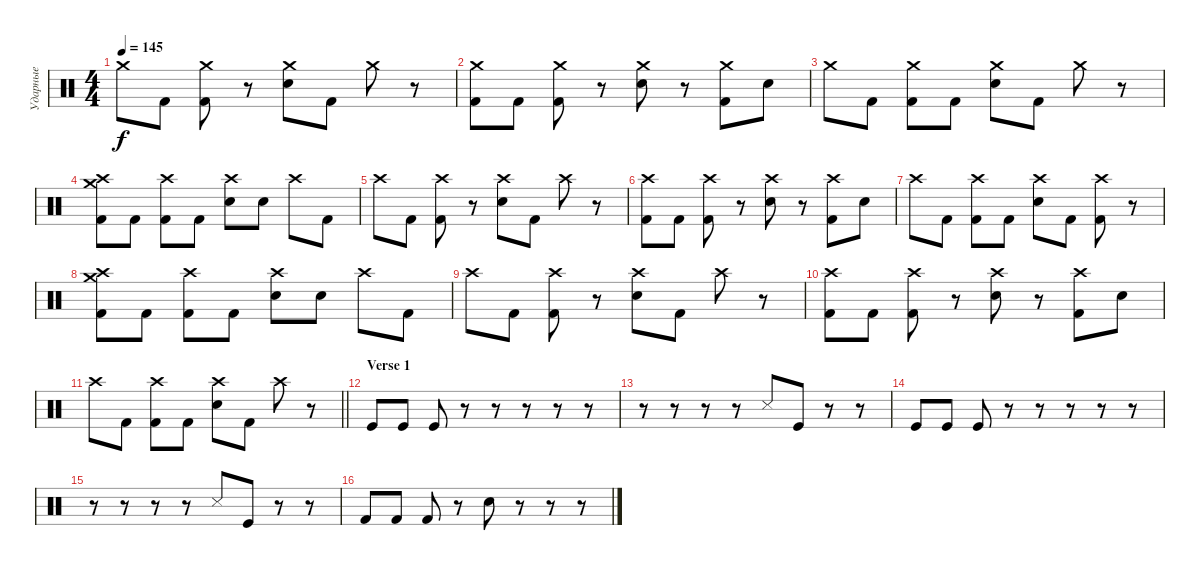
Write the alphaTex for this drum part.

\track ("Ударные" "Ударные") {instrument percussion}
\staff {score}
\articulation defaults
\ts (4 4)
\tempo 145
\clef neutral
\ks c "Crash medium (hit)".8{dy f} "Kick (hit) 2".8
("Crash medium (hit)" "Kick (hit) 2").8 r.8 ("Crash medium (hit)" "Snare (hit) 2").8 "Kick (hit) 2".8 "Crash medium (hit)".8 r.8 |
("Crash medium (hit)" "Kick (hit) 2").8 "Kick (hit) 2".8 ("Crash medium (hit)" "Kick (hit) 2").8 r.8 ("Crash medium (hit)" "Snare (hit) 2").8 r.8 ("Crash medium (hit)" "Kick (hit) 2").8 "Snare (hit) 2".8 |
"Crash medium (hit)".8 "Kick (hit) 2".8 ("Crash medium (hit)" "Kick (hit) 2").8 "Kick (hit) 2".8 ("Crash medium (hit)" "Snare (hit) 2").8 "Kick (hit) 2".8 "Crash medium (hit)".8 r.8 |
("Crash medium (hit)" "Crash high (hit)" "Kick (hit) 2").8 "Kick (hit) 2".8 ("Crash high (hit)" "Kick (hit) 2").8 "Kick (hit) 2".8 ("Crash high (hit)" "Snare (hit) 2").8 "Snare (hit) 2".8 "Crash high (hit)".8 "Kick (hit) 2".8 |
"Crash high (hit)".8 "Kick (hit) 2".8 ("Crash high (hit)" "Kick (hit) 2").8 r.8 ("Crash high (hit)" "Snare (hit) 2").8 "Kick (hit) 2".8 "Crash high (hit)".8 r.8 |
("Crash high (hit)" "Kick (hit) 2").8 "Kick (hit) 2".8 ("Crash high (hit)" "Kick (hit) 2").8 r.8 ("Crash high (hit)" "Snare (hit) 2").8 r.8 ("Crash high (hit)" "Kick (hit) 2").8 "Snare (hit) 2".8 |
"Crash high (hit)".8 "Kick (hit) 2".8 ("Crash high (hit)" "Kick (hit) 2").8 "Kick (hit) 2".8 ("Crash high (hit)" "Snare (hit) 2").8 "Kick (hit) 2".8 ("Crash high (hit)" "Kick (hit) 2").8 r.8 |
("Crash medium (hit)" "Crash high (hit)" "Kick (hit) 2").8 "Kick (hit) 2".8 ("Crash high (hit)" "Kick (hit) 2").8 "Kick (hit) 2".8 ("Crash high (hit)" "Snare (hit) 2").8 "Snare (hit) 2".8 "Crash high (hit)".8 "Kick (hit) 2".8 |
"Crash high (hit)".8 "Kick (hit) 2".8 ("Crash high (hit)" "Kick (hit) 2").8 r.8 ("Crash high (hit)" "Snare (hit) 2").8 "Kick (hit) 2".8 "Crash high (hit)".8 r.8 |
("Crash high (hit)" "Kick (hit) 2").8 "Kick (hit) 2".8 ("Crash high (hit)" "Kick (hit) 2").8 r.8 ("Crash high (hit)" "Snare (hit) 2").8 r.8 ("Crash high (hit)" "Kick (hit) 2").8 "Snare (hit) 2".8 |
\barLineRight lightlight "Crash high (hit)".8 "Kick (hit) 2".8
("Crash high (hit)" "Kick (hit) 2").8 "Kick (hit) 2".8 ("Crash high (hit)" "Snare (hit) 2").8 "Kick (hit) 2".8 "Crash high (hit)".8 r.8 |
\section ("" "Verse 1")
"Kick (hit)".8 "Kick (hit)".8 "Kick (hit)".8 r.8 r.8 r.8 r.8 r.8 |
r.8 r.8 r.8 r.8 "Snare (side stick) 3".8 "Kick (hit)".8 r.8 r.8 |
"Kick (hit)".8 "Kick (hit)".8 "Kick (hit)".8 r.8 r.8 r.8 r.8 r.8 |
r.8 r.8 r.8 r.8 "Snare (side stick) 3".8 "Kick (hit)".8 r.8 r.8 |
"Kick (hit) 2".8 "Kick (hit) 2".8 "Kick (hit) 2".8 r.8 "Snare (hit) 2".8 r.8 r.8 r.8
